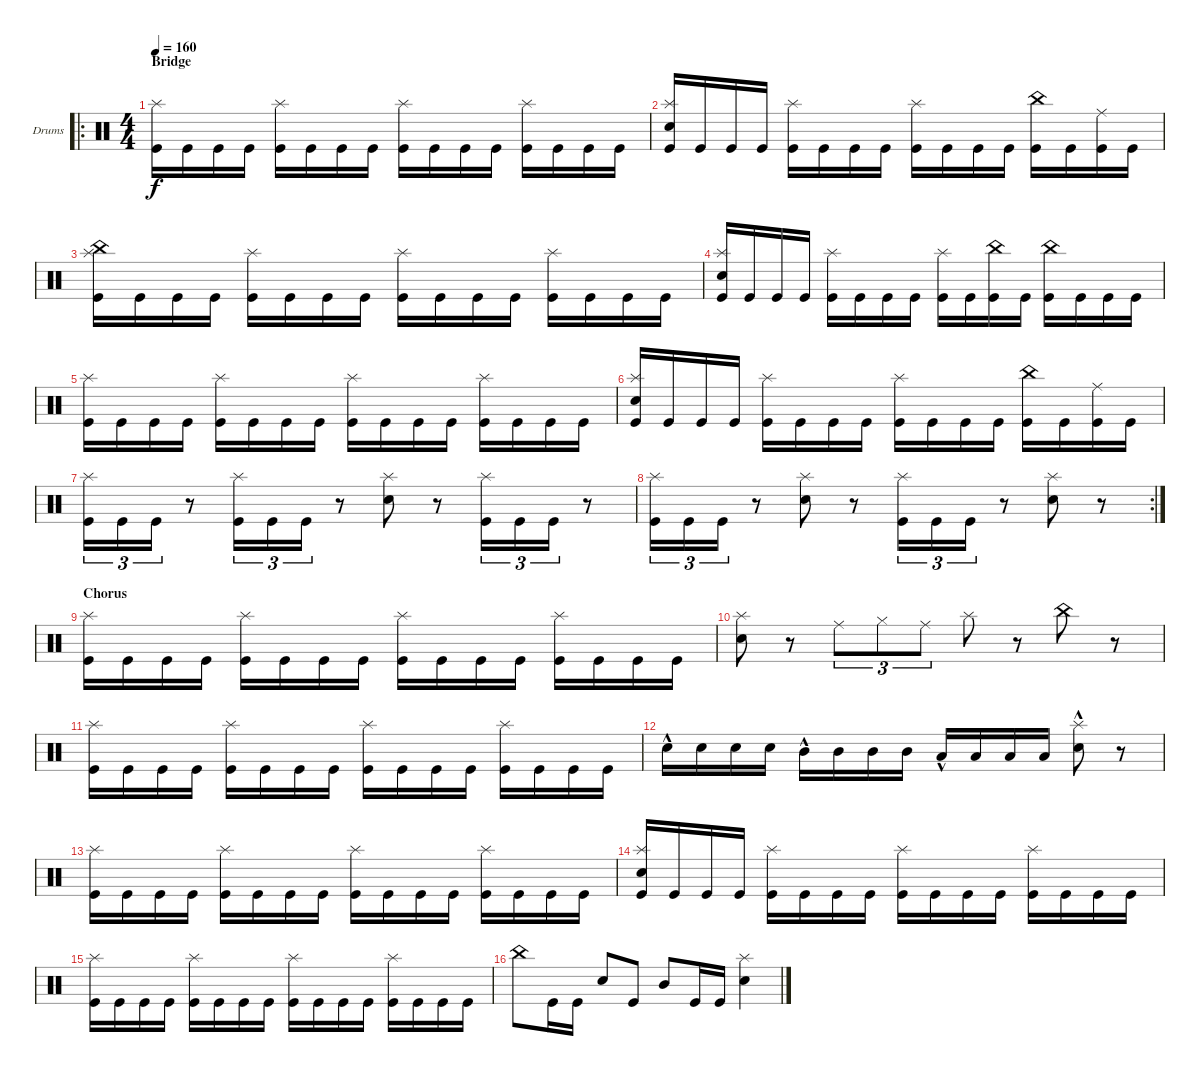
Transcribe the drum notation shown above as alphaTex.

\defaultSystemsLayout 4
\bracketExtendMode groupsimilarinstruments
\firstSystemTrackNameOrientation horizontal
\otherSystemsTrackNameOrientation horizontal
\track ("Drumkit" "Drums") {instrument percussion}
\staff {score}
\articulation defaults
\ro
\ts (4 4)
\section ("" "Bridge")
\tempo 160
\clef neutral
\ks c
("Kick (hit)" "Splash (hit)").16{dy f} "Kick (hit)".16 "Kick (hit)".16 "Kick (hit)".16 ("Kick (hit)" "Splash (hit)").16 "Kick (hit)".16 "Kick (hit)".16 "Kick (hit)".16 ("Kick (hit)" "Splash (hit)").16 "Kick (hit)".16 "Kick (hit)".16 "Kick (hit)".16 ("Kick (hit)" "Splash (hit)").16 "Kick (hit)".16 "Kick (hit)".16 "Kick (hit)".16 |
("Kick (hit)" "Splash (hit)" "Snare (hit) 2").16 "Kick (hit)".16 "Kick (hit)".16 "Kick (hit)".16 ("Kick (hit)" "Splash (hit)").16 "Kick (hit)".16 "Kick (hit)".16 "Kick (hit)".16 ("Kick (hit)" "Splash (hit)").16 "Kick (hit)".16 "Kick (hit)".16 "Kick (hit)".16 ("Kick (hit)" "China (hit)").16 "Kick (hit)".16 ("Kick (hit)" "Ride (middle)").16 "Kick (hit)".16 |
("Kick (hit)" "Splash (hit)" "China (hit)").16 "Kick (hit)".16 "Kick (hit)".16 "Kick (hit)".16 ("Kick (hit)" "Splash (hit)").16 "Kick (hit)".16 "Kick (hit)".16 "Kick (hit)".16 ("Kick (hit)" "Splash (hit)").16 "Kick (hit)".16 "Kick (hit)".16 "Kick (hit)".16 ("Kick (hit)" "Splash (hit)").16 "Kick (hit)".16 "Kick (hit)".16 "Kick (hit)".16 |
("Kick (hit)" "Splash (hit)" "Snare (hit) 2").16 "Kick (hit)".16 "Kick (hit)".16 "Kick (hit)".16 ("Kick (hit)" "Splash (hit)").16 "Kick (hit)".16 "Kick (hit)".16 "Kick (hit)".16 ("Kick (hit)" "Splash (hit)").16 "Kick (hit)".16 ("Kick (hit)" "China (hit)").16 "Kick (hit)".16 ("Kick (hit)" "China (hit)").16 "Kick (hit)".16 "Kick (hit)".16 "Kick (hit)".16 |
("Kick (hit)" "Splash (hit)").16 "Kick (hit)".16 "Kick (hit)".16 "Kick (hit)".16 ("Kick (hit)" "Splash (hit)").16 "Kick (hit)".16 "Kick (hit)".16 "Kick (hit)".16 ("Kick (hit)" "Splash (hit)").16 "Kick (hit)".16 "Kick (hit)".16 "Kick (hit)".16 ("Kick (hit)" "Splash (hit)").16 "Kick (hit)".16 "Kick (hit)".16 "Kick (hit)".16 |
("Kick (hit)" "Splash (hit)" "Snare (hit) 2").16 "Kick (hit)".16 "Kick (hit)".16 "Kick (hit)".16 ("Kick (hit)" "Splash (hit)").16 "Kick (hit)".16 "Kick (hit)".16 "Kick (hit)".16 ("Kick (hit)" "Splash (hit)").16 "Kick (hit)".16 "Kick (hit)".16 "Kick (hit)".16 ("Kick (hit)" "China (hit)").16 "Kick (hit)".16 ("Kick (hit)" "Ride (middle)").16 "Kick (hit)".16 |
("Kick (hit)" "Splash (hit)").16{tu (3 2)} "Kick (hit)".16{tu (3 2)} "Kick (hit)".16{tu (3 2)} r.8 ("Kick (hit)" "Splash (hit)").16{tu (3 2)} "Kick (hit)".16{tu (3 2)} "Kick (hit)".16{tu (3 2)} r.8 ("Splash (hit)" "Snare (hit) 2").8 r.8 ("Kick (hit)" "Splash (hit)").16{tu (3 2)} "Kick (hit)".16{tu (3 2)} "Kick (hit)".16{tu (3 2)} r.8 |
\rc 2
("Kick (hit)" "Splash (hit)").16{tu (3 2)} "Kick (hit)".16{tu (3 2)} "Kick (hit)".16{tu (3 2)} r.8 ("Splash (hit)" "Snare (hit) 2").8 r.8 ("Kick (hit)" "Splash (hit)").16{tu (3 2)} "Kick (hit)".16{tu (3 2)} "Kick (hit)".16{tu (3 2)} r.8 ("Splash (hit)" "Snare (hit) 2").8 r.8 |
\section ("" "Chorus")
("Kick (hit)" "Splash (hit)").16 "Kick (hit)".16 "Kick (hit)".16 "Kick (hit)".16 ("Kick (hit)" "Splash (hit)").16 "Kick (hit)".16 "Kick (hit)".16 "Kick (hit)".16 ("Kick (hit)" "Splash (hit)").16 "Kick (hit)".16 "Kick (hit)".16 "Kick (hit)".16 ("Kick (hit)" "Splash (hit)").16 "Kick (hit)".16 "Kick (hit)".16 "Kick (hit)".16 |
("Snare (hit) 2" "Splash (hit)").8 r.8 "Ride (middle)".8{tu (3 2)} "Hi-Hat (closed)".8{tu (3 2)} "Ride (middle)".8{tu (3 2)} "Splash (hit)".8 r.8 "China (hit)".8 r.8 |
("Kick (hit)" "Splash (hit)").16 "Kick (hit)".16 "Kick (hit)".16 "Kick (hit)".16 ("Kick (hit)" "Splash (hit)").16 "Kick (hit)".16 "Kick (hit)".16 "Kick (hit)".16 ("Kick (hit)" "Splash (hit)").16 "Kick (hit)".16 "Kick (hit)".16 "Kick (hit)".16 ("Kick (hit)" "Splash (hit)").16 "Kick (hit)".16 "Kick (hit)".16 "Kick (hit)".16 |
"Snare (hit) 2"{hac}.16 "Snare (hit) 2".16 "Snare (hit) 2".16 "Snare (hit) 2".16 "Mid Tom (hit)"{hac}.16 "Mid Tom (hit)".16 "Mid Tom (hit)".16 "Mid Tom (hit)".16 "Low Tom (hit)"{hac}.16 "Low Tom (hit)".16 "Low Tom (hit)".16 "Low Tom (hit)".16 ("Snare (hit) 2"{hac} "Splash (hit)").8 r.8 |
("Kick (hit)" "Splash (hit)").16 "Kick (hit)".16 "Kick (hit)".16 "Kick (hit)".16 ("Kick (hit)" "Splash (hit)").16 "Kick (hit)".16 "Kick (hit)".16 "Kick (hit)".16 ("Kick (hit)" "Splash (hit)").16 "Kick (hit)".16 "Kick (hit)".16 "Kick (hit)".16 ("Kick (hit)" "Splash (hit)").16 "Kick (hit)".16 "Kick (hit)".16 "Kick (hit)".16 |
("Kick (hit)" "Splash (hit)" "Snare (hit) 2").16 "Kick (hit)".16 "Kick (hit)".16 "Kick (hit)".16 ("Kick (hit)" "Splash (hit)").16 "Kick (hit)".16 "Kick (hit)".16 "Kick (hit)".16 ("Kick (hit)" "Splash (hit)").16 "Kick (hit)".16 "Kick (hit)".16 "Kick (hit)".16 ("Kick (hit)" "Splash (hit)").16 "Kick (hit)".16 "Kick (hit)".16 "Kick (hit)".16 |
("Kick (hit)" "Splash (hit)").16 "Kick (hit)".16 "Kick (hit)".16 "Kick (hit)".16 ("Kick (hit)" "Splash (hit)").16 "Kick (hit)".16 "Kick (hit)".16 "Kick (hit)".16 ("Kick (hit)" "Splash (hit)").16 "Kick (hit)".16 "Kick (hit)".16 "Kick (hit)".16 ("Kick (hit)" "Splash (hit)").16 "Kick (hit)".16 "Kick (hit)".16 "Kick (hit)".16 |
"China (hit)".8 "Kick (hit)".16 "Kick (hit)".16 "Snare (hit) 2".8 "Kick (hit)".8 "Mid Tom (hit)".8 "Kick (hit)".16 "Kick (hit)".16 ("Snare (hit) 2" "Splash (hit)").4
